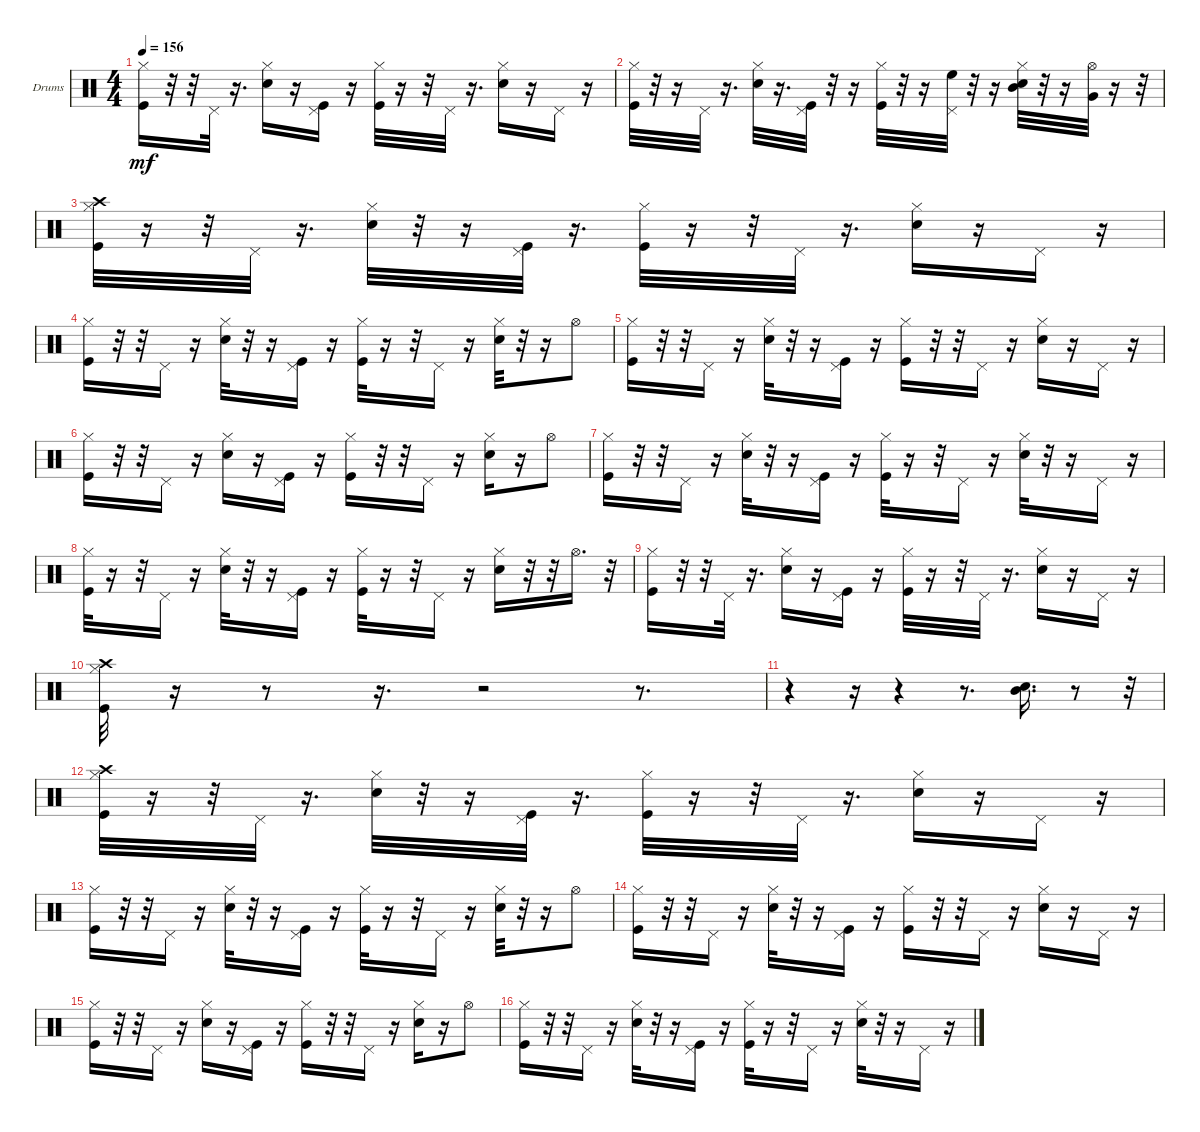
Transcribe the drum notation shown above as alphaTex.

\defaultSystemsLayout 4
\bracketExtendMode groupsimilarinstruments
\firstSystemTrackNameOrientation horizontal
\otherSystemsTrackNameOrientation horizontal
\track ("Drumkit" "Drums") {instrument percussion}
\staff {score}
\articulation defaults
\ts (4 4)
\tempo 156
\clef neutral
\ks c
("Kick (hit)" "Hi-Hat (closed)").16{dy mf} r.32 r.32 "Pedal Hi-Hat (hit)".32 r.16{d} ("Snare (hit) 2" "Hi-Hat (closed)").16 r.16 ("Kick (hit)" "Pedal Hi-Hat (hit)").16 r.16 ("Kick (hit)" "Hi-Hat (closed)").32 r.16 r.32 "Pedal Hi-Hat (hit)".32 r.16{d} ("Snare (hit) 2" "Hi-Hat (closed)").16 r.16 "Pedal Hi-Hat (hit)".16 r.16 |
("Kick (hit)" "Hi-Hat (closed)").32 r.32 r.16 "Pedal Hi-Hat (hit)".32 r.16{d} ("Snare (hit) 2" "Hi-Hat (closed)").32 r.16{d} ("Kick (hit)" "Pedal Hi-Hat (hit)").32 r.32 r.16 ("Kick (hit)" "Hi-Hat (closed)").32 r.32 r.16 ("Pedal Hi-Hat (hit)" "High Floor Tom (hit)").32 r.32 r.16 ("Snare (hit) 2" "Hi-Hat (closed)" "Mid Tom (hit)").32 r.32 r.16 ("Hi-Hat (open)" "Very Low Tom (hit)").32 r.16 r.32 |
("Kick (hit)" "Crash high (hit)" "Hi-Hat (closed)").32 r.16 r.32 "Pedal Hi-Hat (hit)".32 r.16{d} ("Snare (hit) 2" "Hi-Hat (closed)").32 r.32 r.16 ("Kick (hit)" "Pedal Hi-Hat (hit)").32 r.16{d} ("Kick (hit)" "Hi-Hat (closed)").32 r.16 r.32 "Pedal Hi-Hat (hit)".32 r.16{d} ("Snare (hit) 2" "Hi-Hat (closed)").16 r.16 "Pedal Hi-Hat (hit)".16 r.16 |
("Kick (hit)" "Hi-Hat (closed)").16 r.32 r.32 "Pedal Hi-Hat (hit)".16 r.16 ("Snare (hit) 2" "Hi-Hat (closed)").32 r.32 r.16 ("Kick (hit)" "Pedal Hi-Hat (hit)").16 r.16 ("Kick (hit)" "Hi-Hat (closed)").32 r.16 r.32 "Pedal Hi-Hat (hit)".16 r.16 ("Snare (hit) 2" "Hi-Hat (closed)").32 r.32 r.16 "Hi-Hat (open)".8 |
("Kick (hit)" "Hi-Hat (closed)").16 r.32 r.32 "Pedal Hi-Hat (hit)".16 r.16 ("Snare (hit) 2" "Hi-Hat (closed)").32 r.32 r.16 ("Kick (hit)" "Pedal Hi-Hat (hit)").16 r.16 ("Kick (hit)" "Hi-Hat (closed)").16 r.32 r.32 "Pedal Hi-Hat (hit)".16 r.16 ("Snare (hit) 2" "Hi-Hat (closed)").16 r.16 "Pedal Hi-Hat (hit)".16 r.16 |
("Kick (hit)" "Hi-Hat (closed)").16 r.32 r.32 "Pedal Hi-Hat (hit)".16 r.16 ("Snare (hit) 2" "Hi-Hat (closed)").16 r.16 ("Kick (hit)" "Pedal Hi-Hat (hit)").16 r.16 ("Kick (hit)" "Hi-Hat (closed)").16 r.32 r.32 "Pedal Hi-Hat (hit)".16 r.16 ("Snare (hit) 2" "Hi-Hat (closed)").16 r.16 "Hi-Hat (open)".8 |
("Kick (hit)" "Hi-Hat (closed)").16 r.32 r.32 "Pedal Hi-Hat (hit)".16 r.16 ("Snare (hit) 2" "Hi-Hat (closed)").32 r.32 r.16 ("Kick (hit)" "Pedal Hi-Hat (hit)").16 r.16 ("Kick (hit)" "Hi-Hat (closed)").32 r.16 r.32 "Pedal Hi-Hat (hit)".16 r.16 ("Snare (hit) 2" "Hi-Hat (closed)").32 r.32 r.16 "Pedal Hi-Hat (hit)".16 r.16 |
("Kick (hit)" "Hi-Hat (closed)").32 r.16 r.32 "Pedal Hi-Hat (hit)".16 r.16 ("Snare (hit) 2" "Hi-Hat (closed)").32 r.32 r.16 ("Kick (hit)" "Pedal Hi-Hat (hit)").16 r.16 ("Kick (hit)" "Hi-Hat (closed)").32 r.16 r.32 "Pedal Hi-Hat (hit)".16 r.16 ("Snare (hit) 2" "Hi-Hat (closed)").16 r.32 r.32 "Hi-Hat (open)".16{d} r.32 |
("Kick (hit)" "Hi-Hat (closed)").16 r.32 r.32 "Pedal Hi-Hat (hit)".32 r.16{d} ("Snare (hit) 2" "Hi-Hat (closed)").16 r.16 ("Kick (hit)" "Pedal Hi-Hat (hit)").16 r.16 ("Kick (hit)" "Hi-Hat (closed)").32 r.16 r.32 "Pedal Hi-Hat (hit)".32 r.16{d} ("Snare (hit) 2" "Hi-Hat (closed)").16 r.16 "Pedal Hi-Hat (hit)".16 r.16 |
("Kick (hit)" "Crash high (hit)" "Hi-Hat (closed)").32 r.16 r.8 r.16{d} r.2 r.8{d} |
r.4 r.16 r.4 r.8{d} ("Snare (hit) 2" "Mid Tom (hit)").16{d} r.8 r.32 |
("Kick (hit)" "Crash high (hit)" "Hi-Hat (closed)").32 r.16 r.32 "Pedal Hi-Hat (hit)".32 r.16{d} ("Snare (hit) 2" "Hi-Hat (closed)").32 r.32 r.16 ("Kick (hit)" "Pedal Hi-Hat (hit)").32 r.16{d} ("Kick (hit)" "Hi-Hat (closed)").32 r.16 r.32 "Pedal Hi-Hat (hit)".32 r.16{d} ("Snare (hit) 2" "Hi-Hat (closed)").16 r.16 "Pedal Hi-Hat (hit)".16 r.16 |
("Kick (hit)" "Hi-Hat (closed)").16 r.32 r.32 "Pedal Hi-Hat (hit)".16 r.16 ("Snare (hit) 2" "Hi-Hat (closed)").32 r.32 r.16 ("Kick (hit)" "Pedal Hi-Hat (hit)").16 r.16 ("Kick (hit)" "Hi-Hat (closed)").32 r.16 r.32 "Pedal Hi-Hat (hit)".16 r.16 ("Snare (hit) 2" "Hi-Hat (closed)").32 r.32 r.16 "Hi-Hat (open)".8 |
("Kick (hit)" "Hi-Hat (closed)").16 r.32 r.32 "Pedal Hi-Hat (hit)".16 r.16 ("Snare (hit) 2" "Hi-Hat (closed)").32 r.32 r.16 ("Kick (hit)" "Pedal Hi-Hat (hit)").16 r.16 ("Kick (hit)" "Hi-Hat (closed)").16 r.32 r.32 "Pedal Hi-Hat (hit)".16 r.16 ("Snare (hit) 2" "Hi-Hat (closed)").16 r.16 "Pedal Hi-Hat (hit)".16 r.16 |
("Kick (hit)" "Hi-Hat (closed)").16 r.32 r.32 "Pedal Hi-Hat (hit)".16 r.16 ("Snare (hit) 2" "Hi-Hat (closed)").16 r.16 ("Kick (hit)" "Pedal Hi-Hat (hit)").16 r.16 ("Kick (hit)" "Hi-Hat (closed)").16 r.32 r.32 "Pedal Hi-Hat (hit)".16 r.16 ("Snare (hit) 2" "Hi-Hat (closed)").16 r.16 "Hi-Hat (open)".8 |
("Kick (hit)" "Hi-Hat (closed)").16 r.32 r.32 "Pedal Hi-Hat (hit)".16 r.16 ("Snare (hit) 2" "Hi-Hat (closed)").32 r.32 r.16 ("Kick (hit)" "Pedal Hi-Hat (hit)").16 r.16 ("Kick (hit)" "Hi-Hat (closed)").32 r.16 r.32 "Pedal Hi-Hat (hit)".16 r.16 ("Snare (hit) 2" "Hi-Hat (closed)").32 r.32 r.16 "Pedal Hi-Hat (hit)".16 r.16
